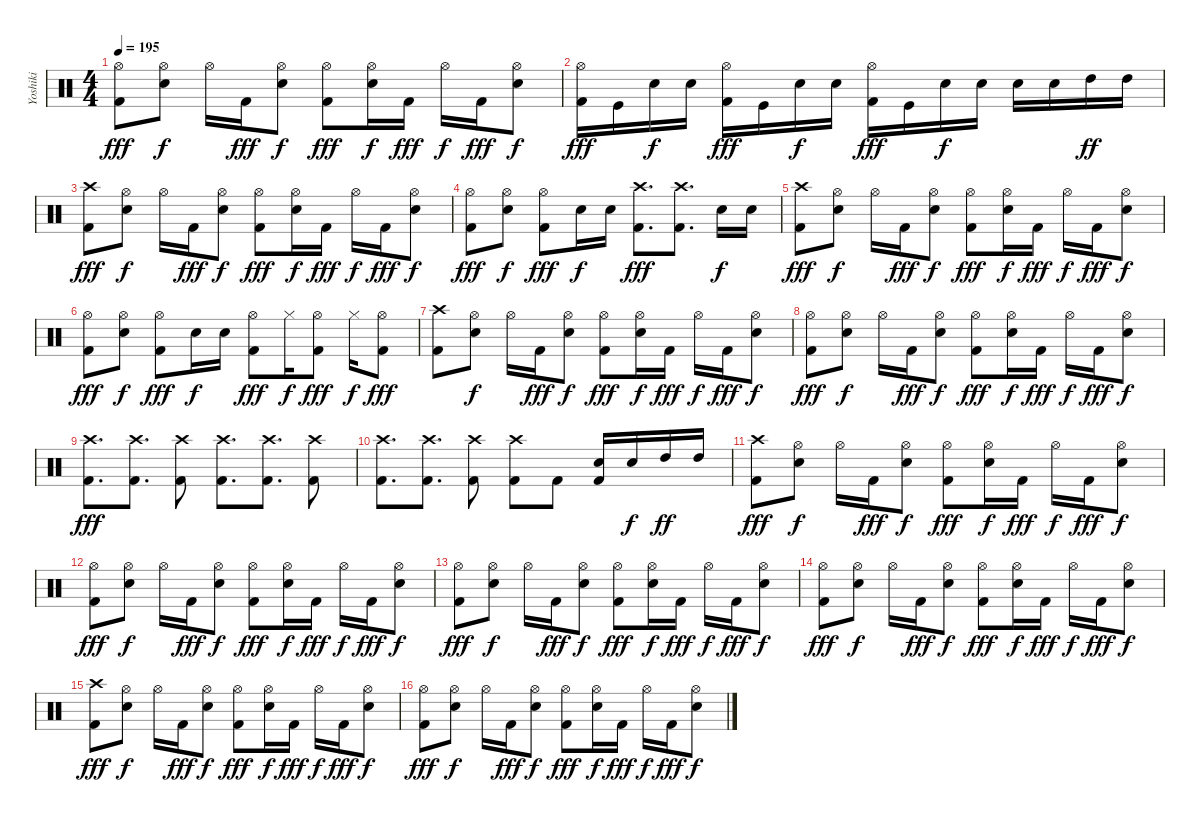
\track ("Yoshiki" "Yoshiki") {instrument percussion}
\staff {score}
\articulation defaults
\ts (4 4)
\tempo 195
\clef neutral
\ks c
("Hi-Hat (open)" "Kick (hit) 2").8{dy fff} ("Hi-Hat (open)" "Electric Snare (hit)").8{dy f} "Hi-Hat (open)".16 "Kick (hit) 2".16{dy fff} ("Hi-Hat (open)" "Electric Snare (hit)").8{dy f} ("Hi-Hat (open)" "Kick (hit) 2").8{dy fff} ("Hi-Hat (open)" "Electric Snare (hit)").16{dy f} "Kick (hit) 2".16{dy fff} "Hi-Hat (open)".16{dy f} "Kick (hit) 2".16{dy fff} ("Hi-Hat (open)" "Electric Snare (hit)").8{dy f} |
("Hi-Hat (open)" "Kick (hit) 2").16{dy fff} "Kick (hit)".16 "Electric Snare (hit)".16{dy f} "Electric Snare (hit)".16 ("Hi-Hat (open)" "Kick (hit) 2").16{dy fff} "Kick (hit)".16 "Electric Snare (hit)".16{dy f} "Electric Snare (hit)".16 ("Hi-Hat (open)" "Kick (hit) 2").16{dy fff} "Kick (hit)".16 "Electric Snare (hit)".16{dy f} "Electric Snare (hit)".16 "Electric Snare (hit)".16 "Electric Snare (hit)".16 "High Tom (hit)".16{dy ff} "High Tom (hit)".16 |
("Crash high (hit)" "Kick (hit) 2").8{dy fff} ("Hi-Hat (open)" "Electric Snare (hit)").8{dy f} "Hi-Hat (open)".16 "Kick (hit) 2".16{dy fff} ("Hi-Hat (open)" "Electric Snare (hit)").8{dy f} ("Hi-Hat (open)" "Kick (hit) 2").8{dy fff} ("Hi-Hat (open)" "Electric Snare (hit)").16{dy f} "Kick (hit) 2".16{dy fff} "Hi-Hat (open)".16{dy f} "Kick (hit) 2".16{dy fff} ("Hi-Hat (open)" "Electric Snare (hit)").8{dy f} |
("Hi-Hat (open)" "Kick (hit) 2").8{dy fff} ("Hi-Hat (open)" "Electric Snare (hit)").8{dy f} ("Hi-Hat (open)" "Kick (hit) 2").8{dy fff} "Electric Snare (hit)".16{dy f} "Electric Snare (hit)".16 ("Crash high (hit)" "Kick (hit) 2").8{d dy fff} ("Crash high (hit)" "Kick (hit) 2").8{d} "Electric Snare (hit)".16{dy f} "Electric Snare (hit)".16 |
("Crash high (hit)" "Kick (hit) 2").8{dy fff} ("Hi-Hat (open)" "Electric Snare (hit)").8{dy f} "Hi-Hat (open)".16 "Kick (hit) 2".16{dy fff} ("Hi-Hat (open)" "Electric Snare (hit)").8{dy f} ("Hi-Hat (open)" "Kick (hit) 2").8{dy fff} ("Hi-Hat (open)" "Electric Snare (hit)").16{dy f} "Kick (hit) 2".16{dy fff} "Hi-Hat (open)".16{dy f} "Kick (hit) 2".16{dy fff} ("Hi-Hat (open)" "Electric Snare (hit)").8{dy f} |
("Hi-Hat (open)" "Kick (hit) 2").8{dy fff} ("Hi-Hat (open)" "Electric Snare (hit)").8{dy f} ("Hi-Hat (open)" "Kick (hit) 2").8{dy fff} "Electric Snare (hit)".16{dy f} "Electric Snare (hit)".16 ("Hi-Hat (open)" "Kick (hit) 2").8{dy fff} "Hi-Hat (closed)".16{dy f} ("Hi-Hat (open)" "Kick (hit) 2").8{dy fff} "Hi-Hat (closed)".16{dy f} ("Hi-Hat (open)" "Kick (hit) 2").8{dy fff} |
("Crash high (hit)" "Kick (hit) 2").8 ("Hi-Hat (open)" "Electric Snare (hit)").8{dy f} "Hi-Hat (open)".16 "Kick (hit) 2".16{dy fff} ("Hi-Hat (open)" "Electric Snare (hit)").8{dy f} ("Hi-Hat (open)" "Kick (hit) 2").8{dy fff} ("Hi-Hat (open)" "Electric Snare (hit)").16{dy f} "Kick (hit) 2".16{dy fff} "Hi-Hat (open)".16{dy f} "Kick (hit) 2".16{dy fff} ("Hi-Hat (open)" "Electric Snare (hit)").8{dy f} |
("Hi-Hat (open)" "Kick (hit) 2").8{dy fff} ("Hi-Hat (open)" "Electric Snare (hit)").8{dy f} "Hi-Hat (open)".16 "Kick (hit) 2".16{dy fff} ("Hi-Hat (open)" "Electric Snare (hit)").8{dy f} ("Hi-Hat (open)" "Kick (hit) 2").8{dy fff} ("Hi-Hat (open)" "Electric Snare (hit)").16{dy f} "Kick (hit) 2".16{dy fff} "Hi-Hat (open)".16{dy f} "Kick (hit) 2".16{dy fff} ("Hi-Hat (open)" "Electric Snare (hit)").8{dy f} |
("Crash high (hit)" "Kick (hit) 2").8{d dy fff} ("Crash high (hit)" "Kick (hit) 2").8{d} ("Crash high (hit)" "Kick (hit) 2").8 ("Crash high (hit)" "Kick (hit) 2").8{d} ("Crash high (hit)" "Kick (hit) 2").8{d} ("Crash high (hit)" "Kick (hit) 2").8 |
("Crash high (hit)" "Kick (hit) 2").8{d} ("Crash high (hit)" "Kick (hit) 2").8{d} ("Crash high (hit)" "Kick (hit) 2").8 ("Crash high (hit)" "Kick (hit) 2").8 "Kick (hit) 2".8 ("Electric Snare (hit)" "Kick (hit) 2").16 "Electric Snare (hit)".16{dy f} "High Tom (hit)".16{dy ff} "High Tom (hit)".16 |
("Crash high (hit)" "Kick (hit) 2").8{dy fff} ("Hi-Hat (open)" "Electric Snare (hit)").8{dy f} "Hi-Hat (open)".16 "Kick (hit) 2".16{dy fff} ("Hi-Hat (open)" "Electric Snare (hit)").8{dy f} ("Hi-Hat (open)" "Kick (hit) 2").8{dy fff} ("Hi-Hat (open)" "Electric Snare (hit)").16{dy f} "Kick (hit) 2".16{dy fff} "Hi-Hat (open)".16{dy f} "Kick (hit) 2".16{dy fff} ("Hi-Hat (open)" "Electric Snare (hit)").8{dy f} |
("Hi-Hat (open)" "Kick (hit) 2").8{dy fff} ("Hi-Hat (open)" "Electric Snare (hit)").8{dy f} "Hi-Hat (open)".16 "Kick (hit) 2".16{dy fff} ("Hi-Hat (open)" "Electric Snare (hit)").8{dy f} ("Hi-Hat (open)" "Kick (hit) 2").8{dy fff} ("Hi-Hat (open)" "Electric Snare (hit)").16{dy f} "Kick (hit) 2".16{dy fff} "Hi-Hat (open)".16{dy f} "Kick (hit) 2".16{dy fff} ("Hi-Hat (open)" "Electric Snare (hit)").8{dy f} |
("Hi-Hat (open)" "Kick (hit) 2").8{dy fff} ("Hi-Hat (open)" "Electric Snare (hit)").8{dy f} "Hi-Hat (open)".16 "Kick (hit) 2".16{dy fff} ("Hi-Hat (open)" "Electric Snare (hit)").8{dy f} ("Hi-Hat (open)" "Kick (hit) 2").8{dy fff} ("Hi-Hat (open)" "Electric Snare (hit)").16{dy f} "Kick (hit) 2".16{dy fff} "Hi-Hat (open)".16{dy f} "Kick (hit) 2".16{dy fff} ("Hi-Hat (open)" "Electric Snare (hit)").8{dy f} |
("Hi-Hat (open)" "Kick (hit) 2").8{dy fff} ("Hi-Hat (open)" "Electric Snare (hit)").8{dy f} "Hi-Hat (open)".16 "Kick (hit) 2".16{dy fff} ("Hi-Hat (open)" "Electric Snare (hit)").8{dy f} ("Hi-Hat (open)" "Kick (hit) 2").8{dy fff} ("Hi-Hat (open)" "Electric Snare (hit)").16{dy f} "Kick (hit) 2".16{dy fff} "Hi-Hat (open)".16{dy f} "Kick (hit) 2".16{dy fff} ("Hi-Hat (open)" "Electric Snare (hit)").8{dy f} |
("Crash high (hit)" "Kick (hit) 2").8{dy fff} ("Hi-Hat (open)" "Electric Snare (hit)").8{dy f} "Hi-Hat (open)".16 "Kick (hit) 2".16{dy fff} ("Hi-Hat (open)" "Electric Snare (hit)").8{dy f} ("Hi-Hat (open)" "Kick (hit) 2").8{dy fff} ("Hi-Hat (open)" "Electric Snare (hit)").16{dy f} "Kick (hit) 2".16{dy fff} "Hi-Hat (open)".16{dy f} "Kick (hit) 2".16{dy fff} ("Hi-Hat (open)" "Electric Snare (hit)").8{dy f} |
("Hi-Hat (open)" "Kick (hit) 2").8{dy fff} ("Hi-Hat (open)" "Electric Snare (hit)").8{dy f} "Hi-Hat (open)".16 "Kick (hit) 2".16{dy fff} ("Hi-Hat (open)" "Electric Snare (hit)").8{dy f} ("Hi-Hat (open)" "Kick (hit) 2").8{dy fff} ("Hi-Hat (open)" "Electric Snare (hit)").16{dy f} "Kick (hit) 2".16{dy fff} "Hi-Hat (open)".16{dy f} "Kick (hit) 2".16{dy fff} ("Hi-Hat (open)" "Electric Snare (hit)").8{dy f}
